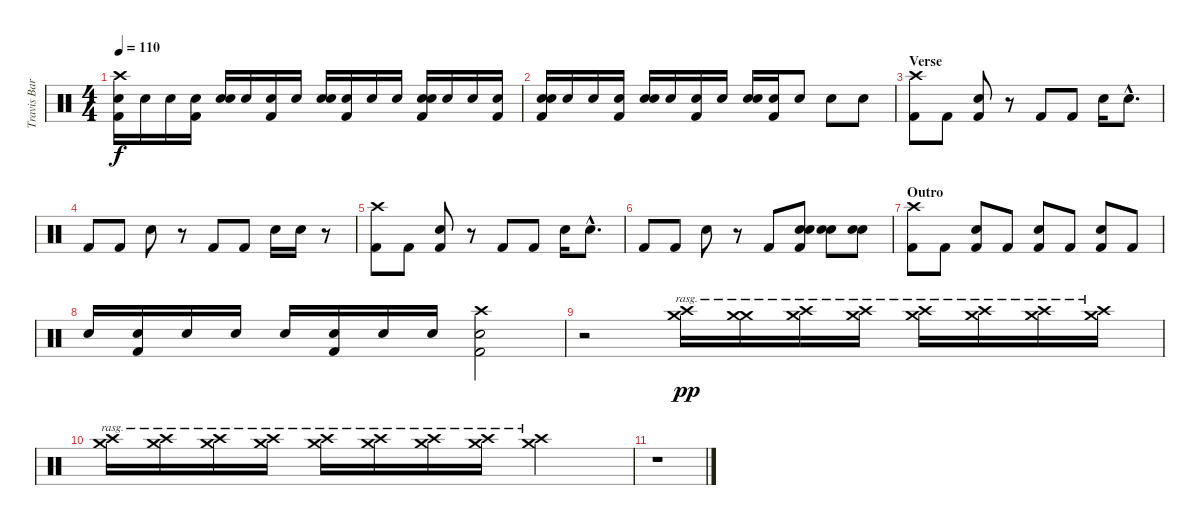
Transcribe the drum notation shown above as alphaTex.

\track ("Travis Barker (Bateria)" "Travis Bar") {instrument percussion}
\staff {score}
\articulation defaults
\ts (4 4)
\tempo 110
\clef neutral
\ks c
("Crash high (hit)" "Electric Snare (hit)" "Kick (hit) 2").16{dy f} "Electric Snare (hit)".16 "Electric Snare (hit)".16 ("Electric Snare (hit)" "Kick (hit) 2").16 ("Electric Snare (hit)" "Electric Snare (hit)").16 "Electric Snare (hit)".16 ("Electric Snare (hit)" "Kick (hit) 2").16 "Electric Snare (hit)".16 ("Electric Snare (hit)" "Electric Snare (hit)").16 ("Electric Snare (hit)" "Kick (hit) 2").16 "Electric Snare (hit)".16 "Electric Snare (hit)".16 ("Electric Snare (hit)" "Electric Snare (hit)" "Kick (hit) 2").16 "Electric Snare (hit)".16 "Electric Snare (hit)".16 ("Electric Snare (hit)" "Kick (hit) 2").16 |
("Electric Snare (hit)" "Electric Snare (hit)" "Kick (hit) 2").16 "Electric Snare (hit)".16 "Electric Snare (hit)".16 ("Electric Snare (hit)" "Kick (hit) 2").16 ("Electric Snare (hit)" "Electric Snare (hit)").16 "Electric Snare (hit)".16 ("Electric Snare (hit)" "Kick (hit) 2").16 "Electric Snare (hit)".16 ("Electric Snare (hit)" "Electric Snare (hit)").16 ("Electric Snare (hit)" "Kick (hit) 2").16 "Electric Snare (hit)".8 "Electric Snare (hit)".8 "Electric Snare (hit)".8 |
\section ("" "Verse")
("Crash high (hit)" "Kick (hit) 2").8 "Kick (hit) 2".8 ("Electric Snare (hit)" "Kick (hit) 2").8 r.8 "Kick (hit) 2".8 "Kick (hit) 2".8 "Electric Snare (hit)".16 "Electric Snare (hit)"{hac}.8{d} |
"Kick (hit) 2".8 "Kick (hit) 2".8 "Electric Snare (hit)".8 r.8 "Kick (hit) 2".8 "Kick (hit) 2".8 "Electric Snare (hit)".16 "Electric Snare (hit)".16 r.8 |
("Crash high (hit)" "Kick (hit) 2").8 "Kick (hit) 2".8 ("Electric Snare (hit)" "Kick (hit) 2").8 r.8 "Kick (hit) 2".8 "Kick (hit) 2".8 "Electric Snare (hit)".16 "Electric Snare (hit)"{hac}.8{d} |
"Kick (hit) 2".8 "Kick (hit) 2".8 "Electric Snare (hit)".8 r.8 "Kick (hit) 2".8 ("Electric Snare (hit)" "Electric Snare (hit)" "Kick (hit) 2").8 ("Electric Snare (hit)" "Electric Snare (hit)").8 ("Electric Snare (hit)" "Electric Snare (hit)").8 |
\section ("" "Outro")
("Crash high (hit)" "Kick (hit) 2").8 "Kick (hit) 2".8 ("Electric Snare (hit)" "Kick (hit) 2").8 "Kick (hit) 2".8 ("Electric Snare (hit)" "Kick (hit) 2").8 "Kick (hit) 2".8 ("Electric Snare (hit)" "Kick (hit) 2").8 "Kick (hit) 2".8 |
"Electric Snare (hit)".16 ("Electric Snare (hit)" "Kick (hit) 2").16 "Electric Snare (hit)".16 "Electric Snare (hit)".16 "Electric Snare (hit)".16 ("Electric Snare (hit)" "Kick (hit) 2").16 "Electric Snare (hit)".16 "Electric Snare (hit)".16 ("Crash high (hit)" "Electric Snare (hit)" "Kick (hit) 2").2 |
r.2 ("Crash high (hit)" "Crash medium (hit)").16{bd 480 rasg ii dy pp} ("Crash medium (hit)" "Crash medium (hit)").16{bd 120 rasg ii} ("Crash high (hit)" "Crash medium (hit)").16{bd 480 rasg ii} ("Crash high (hit)" "Crash medium (hit)").16{bd 120 rasg ii} ("Crash high (hit)" "Crash medium (hit)").16{bd 120 rasg ii} ("Crash high (hit)" "Crash medium (hit)").16{bd 120 rasg ii} ("Crash high (hit)" "Crash medium (hit)").16{bd 120 rasg ii} ("Crash high (hit)" "Crash medium (hit)").16{bd 120 rasg ii} |
("Crash high (hit)" "Crash medium (hit)").16{bd 120 rasg ii} ("Crash high (hit)" "Crash medium (hit)").16{bd 120 rasg ii} ("Crash high (hit)" "Crash medium (hit)").16{bd 120 rasg ii} ("Crash high (hit)" "Crash medium (hit)").16{bd 120 rasg ii} ("Crash high (hit)" "Crash medium (hit)").16{bd 120 rasg ii} ("Crash high (hit)" "Crash medium (hit)").16{bd 120 rasg ii} ("Crash high (hit)" "Crash medium (hit)").16{bd 120 rasg ii} ("Crash high (hit)" "Crash medium (hit)").16{bd 120 rasg ii} ("Crash high (hit)" "Crash medium (hit)").2{bd 120 rasg ii} |
r.1
